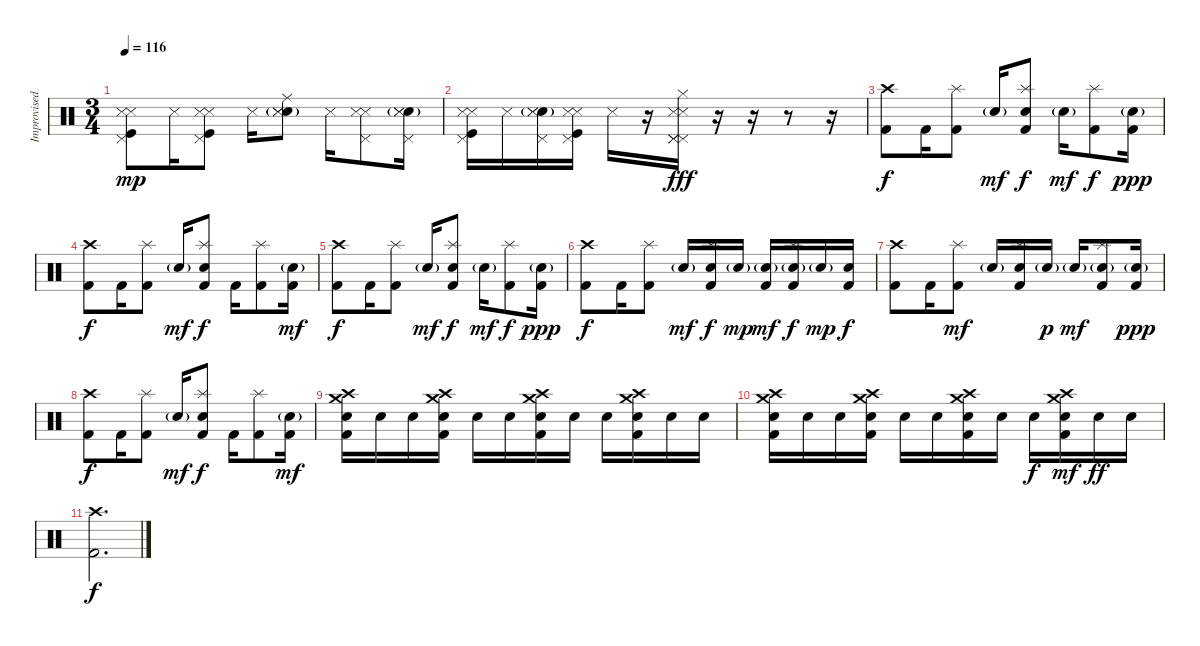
\track ("Improvised Drums" "Improvised") {instrument percussion}
\staff {score}
\articulation defaults
\ts (3 4)
\tempo 116
\clef neutral
\ks c
("Metronome (hit)" "Kick (hit)" "Pedal Hi-Hat (hit)" "Snare (side stick) 3").8{dy mp} "Snare (side stick) 3".16 ("Metronome (hit)" "Kick (hit)" "Pedal Hi-Hat (hit)" "Snare (side stick) 3").8 "Snare (side stick) 3".16 ("Electric Snare (hit)"{g} "Metronome (hit)" "Ride (middle)" "Snare (side stick) 3").8 "Snare (side stick) 3".16 ("Metronome (hit)" "Pedal Hi-Hat (hit)" "Snare (side stick) 3").8 ("Electric Snare (hit)"{g} "Metronome (hit)" "Pedal Hi-Hat (hit)" "Snare (side stick) 3").16 |
("Metronome (hit)" "Kick (hit)" "Pedal Hi-Hat (hit)" "Snare (side stick) 3").16 "Snare (side stick) 3".16 ("Electric Snare (hit)"{g} "Metronome (hit)" "Pedal Hi-Hat (hit)" "Snare (side stick) 3").16 ("Kick (hit)" "Metronome (hit)" "Pedal Hi-Hat (hit)" "Snare (side stick) 3").16 "Snare (side stick) 3".16 r.16 ("Hi-Hat (closed)" "Pedal Hi-Hat (hit)" "Metronome (hit)" "Pedal Hi-Hat (hit)" "Snare (side stick) 3" "Pedal Hi-Hat (hit)").16{dy fff} r.16 r.16 r.8 r.16 |
("Kick (hit) 2" "Crash high (hit)").8{dy f} "Kick (hit) 2".16 ("Kick (hit) 2" "Splash (hit)").8 "Snare (hit) 2"{g}.16{dy mf} ("Kick (hit) 2" "Snare (hit) 2" "Splash (hit)").8{dy f} "Snare (hit) 2"{g}.16{dy mf} ("Kick (hit) 2" "Splash (hit)").8{dy f} ("Kick (hit) 2" "Electric Snare (hit)"{g}).16{dy ppp} |
("Kick (hit) 2" "Crash high (hit)").8{dy f} "Kick (hit) 2".16 ("Kick (hit) 2" "Splash (hit)").8 "Snare (hit) 2"{g}.16{dy mf} ("Kick (hit) 2" "Snare (hit) 2" "Splash (hit)").8{dy f} "Kick (hit) 2".16 ("Kick (hit) 2" "Splash (hit)").8 ("Kick (hit) 2" "Snare (hit) 2"{g}).16{dy mf} |
("Kick (hit) 2" "Crash high (hit)").8{dy f} "Kick (hit) 2".16 ("Kick (hit) 2" "Splash (hit)").8 "Snare (hit) 2"{g}.16{dy mf} ("Kick (hit) 2" "Snare (hit) 2" "Splash (hit)").8{dy f} "Snare (hit) 2"{g}.16{dy mf} ("Kick (hit) 2" "Splash (hit)").8{dy f} ("Kick (hit) 2" "Electric Snare (hit)"{g}).16{dy ppp} |
("Kick (hit) 2" "Crash high (hit)").8{dy f} "Kick (hit) 2".16 ("Kick (hit) 2" "Splash (hit)").8 "Snare (hit) 2"{g}.16{dy mf} ("Kick (hit) 2" "Snare (hit) 2" "Splash (hit)").16{dy f} "Snare (hit) 2"{g}.16{dy mp} ("Kick (hit) 2" "Snare (hit) 2"{g}).16{dy mf} ("Kick (hit) 2" "Snare (hit) 2"{g} "Splash (hit)").16{dy f} "Snare (hit) 2"{g}.16{dy mp} ("Kick (hit) 2" "Snare (hit) 2").16{dy f} |
("Kick (hit) 2" "Crash high (hit)").8 "Kick (hit) 2".16 ("Kick (hit) 2" "Splash (hit)").8{dy mf} "Snare (hit) 2"{g}.16 ("Kick (hit) 2" "Snare (hit) 2" "Splash (hit)").16 "Snare (hit) 2"{g}.16{dy p} "Snare (hit) 2"{g}.16{dy mf} ("Kick (hit) 2" "Snare (hit) 2"{g} "Splash (hit)").8 ("Kick (hit) 2" "Electric Snare (hit)"{g}).16{dy ppp} |
("Kick (hit) 2" "Crash high (hit)").8{dy f} "Kick (hit) 2".16 ("Kick (hit) 2" "Splash (hit)").8 "Snare (hit) 2"{g}.16{dy mf} ("Kick (hit) 2" "Snare (hit) 2" "Splash (hit)").8{dy f} "Kick (hit) 2".16 ("Kick (hit) 2" "Splash (hit)").8 ("Kick (hit) 2" "Snare (hit) 2"{g}).16{dy mf} |
("Crash high (hit)" "Crash medium (hit)" "Snare (hit) 2" "Kick (hit) 2").16 "Snare (hit) 2".16 "Snare (hit) 2".16 ("Crash high (hit)" "Crash medium (hit)" "Snare (hit) 2" "Kick (hit) 2").16 "Snare (hit) 2".16 "Snare (hit) 2".16 ("Crash high (hit)" "Crash medium (hit)" "Snare (hit) 2" "Kick (hit) 2").16 "Snare (hit) 2".16 "Snare (hit) 2".16 ("Crash high (hit)" "Crash medium (hit)" "Snare (hit) 2" "Kick (hit) 2").16 "Snare (hit) 2".16 "Snare (hit) 2".16 |
("Crash high (hit)" "Crash medium (hit)" "Snare (hit) 2" "Kick (hit) 2").16 "Snare (hit) 2".16 "Snare (hit) 2".16 ("Crash high (hit)" "Crash medium (hit)" "Snare (hit) 2" "Kick (hit) 2").16 "Snare (hit) 2".16 "Snare (hit) 2".16 ("Crash high (hit)" "Crash medium (hit)" "Snare (hit) 2" "Kick (hit) 2").16 "Snare (hit) 2".16 "Snare (hit) 2".16{dy f} ("Crash high (hit)" "Crash medium (hit)" "Snare (hit) 2" "Kick (hit) 2").16{dy mf} "Snare (hit) 2".16{dy ff} "Snare (hit) 2".16 |
("Crash high (hit)" "Kick (hit) 2").2{d dy f}
